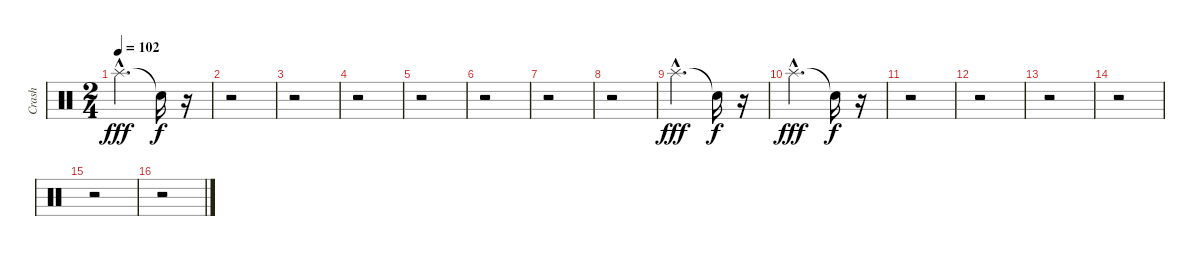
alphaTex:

\track ("Crash" "Crash") {instrument percussion}
\staff {score}
\articulation defaults
\ts (2 4)
\tempo 102
\clef neutral
\ks c "Splash (hit)"{hac}.4{d dy fff} "Snare (hit)"{t}.16{dy f}
r.16 |
r.2 |
r.2 |
r.2 |
r.2 |
r.2 |
r.2 |
r.2 |
"Splash (hit)"{hac}.4{d dy fff} "Snare (hit)"{t}.16{dy f} r.16 |
"Splash (hit)"{hac}.4{d dy fff} "Snare (hit)"{t}.16{dy f} r.16 |
r.2 |
r.2 |
r.2 |
r.2 |
r.2 |
r.2
